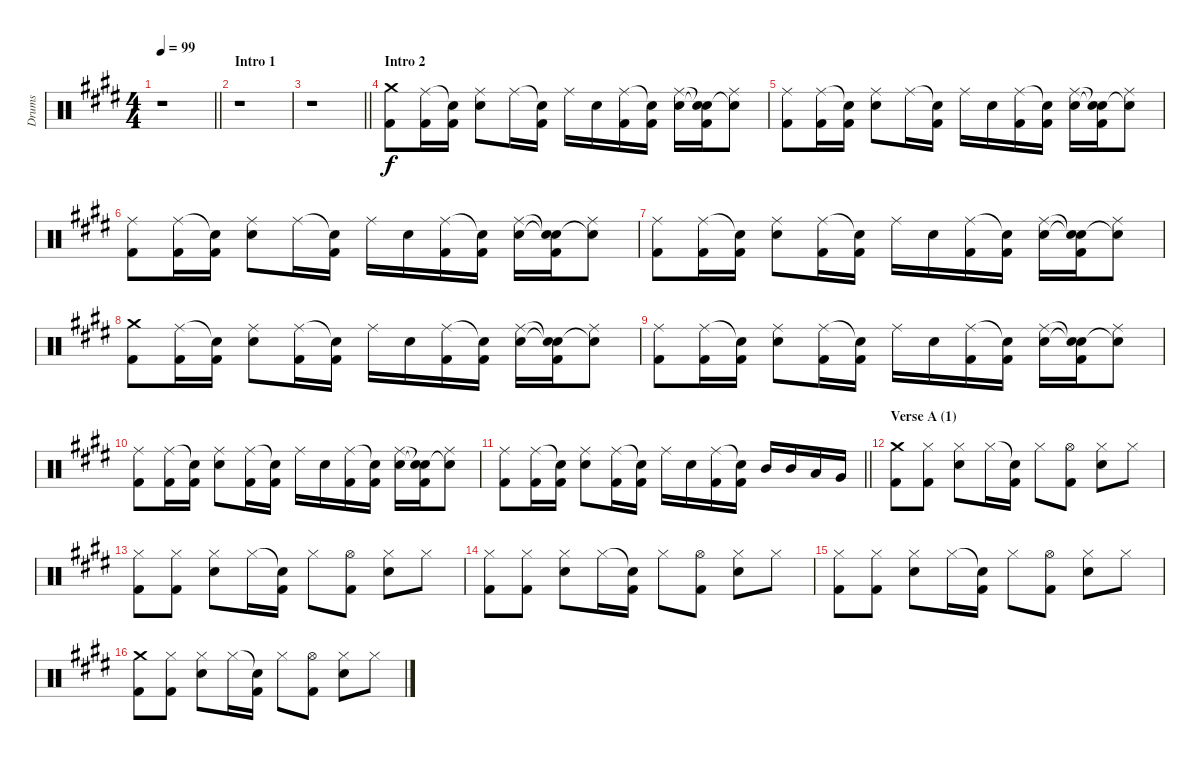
\track ("Drums" "Drums") {instrument percussion}
\staff {score}
\articulation defaults
\ts (4 4)
\tempo 99
\clef neutral
\barLineRight lightlight
\ks c#minor
r.1{dy f} |
\section ("" "Intro 1")
r.1 |
\barLineRight lightlight
r.1 |
\section ("" "Intro 2")
("Crash medium (hit)" "Kick (hit) 2").8 ("Ride (middle)" "Kick (hit) 2").16 ("Snare (hit)"{t} "Kick (hit) 2").16 ("Ride (middle)" "Electric Snare (hit)").8 "Ride (middle)".16 ("Snare (hit)"{t} "Kick (hit) 2").16 "Ride (middle)".16 "Electric Snare (hit)".16 ("Ride (middle)" "Kick (hit) 2").16 ("Snare (hit)"{t} "Kick (hit) 2").16 ("Ride (middle)" "Electric Snare (hit)").16 ("Snare (hit)"{t} "Snare (hit)"{t} "Kick (hit) 2").16 ("Ride (middle)" "Snare (hit)"{t}).8 |
("Ride (middle)" "Kick (hit) 2").8 ("Ride (middle)" "Kick (hit) 2").16 ("Snare (hit)"{t} "Kick (hit) 2").16 ("Ride (middle)" "Electric Snare (hit)").8 "Ride (middle)".16 ("Snare (hit)"{t} "Kick (hit) 2").16 "Ride (middle)".16 "Electric Snare (hit)".16 ("Ride (middle)" "Kick (hit) 2").16 ("Snare (hit)"{t} "Kick (hit) 2").16 ("Ride (middle)" "Electric Snare (hit)").16 ("Snare (hit)"{t} "Snare (hit)"{t} "Kick (hit) 2").16 ("Ride (middle)" "Snare (hit)"{t}).8 |
("Ride (middle)" "Kick (hit) 2").8 ("Ride (middle)" "Kick (hit) 2").16 ("Snare (hit)"{t} "Kick (hit) 2").16 ("Ride (middle)" "Electric Snare (hit)").8 "Ride (middle)".16 ("Snare (hit)"{t} "Kick (hit) 2").16 "Ride (middle)".16 "Electric Snare (hit)".16 ("Ride (middle)" "Kick (hit) 2").16 ("Snare (hit)"{t} "Kick (hit) 2").16 ("Ride (middle)" "Electric Snare (hit)").16 ("Snare (hit)"{t} "Snare (hit)"{t} "Kick (hit) 2").16 ("Ride (middle)" "Snare (hit)"{t}).8 |
("Ride (middle)" "Kick (hit) 2").8 ("Ride (middle)" "Kick (hit) 2").16 ("Snare (hit)"{t} "Kick (hit) 2").16 ("Ride (middle)" "Electric Snare (hit)").8 ("Ride (middle)" "Kick (hit) 2").16 ("Snare (hit)"{t} "Kick (hit) 2").16 "Ride (middle)".16 "Electric Snare (hit)".16 ("Ride (middle)" "Kick (hit) 2").16 ("Snare (hit)"{t} "Kick (hit) 2").16 ("Ride (middle)" "Electric Snare (hit)").16 ("Snare (hit)"{t} "Snare (hit)"{t} "Kick (hit) 2").16 ("Ride (middle)" "Snare (hit)"{t}).8 |
("Crash medium (hit)" "Kick (hit) 2").8 ("Ride (middle)" "Kick (hit) 2").16 ("Snare (hit)"{t} "Kick (hit) 2").16 ("Ride (middle)" "Electric Snare (hit)").8 ("Ride (middle)" "Kick (hit) 2").16 ("Snare (hit)"{t} "Kick (hit) 2").16 "Ride (middle)".16 "Electric Snare (hit)".16 ("Ride (middle)" "Kick (hit) 2").16 ("Snare (hit)"{t} "Kick (hit) 2").16 ("Ride (middle)" "Electric Snare (hit)").16 ("Snare (hit)"{t} "Snare (hit)"{t} "Kick (hit) 2").16 ("Ride (middle)" "Snare (hit)"{t}).8 |
("Ride (middle)" "Kick (hit) 2").8 ("Ride (middle)" "Kick (hit) 2").16 ("Snare (hit)"{t} "Kick (hit) 2").16 ("Ride (middle)" "Electric Snare (hit)").8 ("Ride (middle)" "Kick (hit) 2").16 ("Snare (hit)"{t} "Kick (hit) 2").16 "Ride (middle)".16 "Electric Snare (hit)".16 ("Ride (middle)" "Kick (hit) 2").16 ("Snare (hit)"{t} "Kick (hit) 2").16 ("Ride (middle)" "Electric Snare (hit)").16 ("Snare (hit)"{t} "Snare (hit)"{t} "Kick (hit) 2").16 ("Ride (middle)" "Snare (hit)"{t}).8 |
("Ride (middle)" "Kick (hit) 2").8 ("Ride (middle)" "Kick (hit) 2").16 ("Snare (hit)"{t} "Kick (hit) 2").16 ("Ride (middle)" "Electric Snare (hit)").8 ("Ride (middle)" "Kick (hit) 2").16 ("Snare (hit)"{t} "Kick (hit) 2").16 "Ride (middle)".16 "Electric Snare (hit)".16 ("Ride (middle)" "Kick (hit) 2").16 ("Snare (hit)"{t} "Kick (hit) 2").16 ("Ride (middle)" "Electric Snare (hit)").16 ("Snare (hit)"{t} "Snare (hit)"{t} "Kick (hit) 2").16 ("Ride (middle)" "Snare (hit)"{t}).8 |
\barLineRight lightlight
("Ride (middle)" "Kick (hit) 2").8 ("Ride (middle)" "Kick (hit) 2").16 ("Snare (hit)"{t} "Kick (hit) 2").16 ("Ride (middle)" "Electric Snare (hit)").8 ("Ride (middle)" "Kick (hit) 2").16 ("Snare (hit)"{t} "Kick (hit) 2").16 "Ride (middle)".16 "Electric Snare (hit)".16 ("Ride (middle)" "Kick (hit) 2").16 ("Snare (hit)"{t} "Kick (hit) 2").16 "Mid Tom (hit)".16 "Mid Tom (hit)".16 "Low Tom (hit)".16 "Very Low Tom (hit)".16 |
\section ("" "Verse A (1)")
("Crash medium (hit)" "Kick (hit) 2").8 ("Hi-Hat (closed)" "Kick (hit) 2").8 ("Hi-Hat (closed)" "Electric Snare (hit)").8 "Hi-Hat (closed)".16 ("Snare (hit)"{t} "Kick (hit) 2").16 "Hi-Hat (closed)".8 ("Hi-Hat (open)" "Kick (hit) 2").8 ("Hi-Hat (closed)" "Electric Snare (hit)").8 "Hi-Hat (closed)".8 |
("Hi-Hat (closed)" "Kick (hit) 2").8 ("Hi-Hat (closed)" "Kick (hit) 2").8 ("Hi-Hat (closed)" "Electric Snare (hit)").8 "Hi-Hat (closed)".16 ("Snare (hit)"{t} "Kick (hit) 2").16 "Hi-Hat (closed)".8 ("Hi-Hat (open)" "Kick (hit) 2").8 ("Hi-Hat (closed)" "Electric Snare (hit)").8 "Hi-Hat (closed)".8 |
("Hi-Hat (closed)" "Kick (hit) 2").8 ("Hi-Hat (closed)" "Kick (hit) 2").8 ("Hi-Hat (closed)" "Electric Snare (hit)").8 "Hi-Hat (closed)".16 ("Snare (hit)"{t} "Kick (hit) 2").16 "Hi-Hat (closed)".8 ("Hi-Hat (open)" "Kick (hit) 2").8 ("Hi-Hat (closed)" "Electric Snare (hit)").8 "Hi-Hat (closed)".8 |
("Hi-Hat (closed)" "Kick (hit) 2").8 ("Hi-Hat (closed)" "Kick (hit) 2").8 ("Hi-Hat (closed)" "Electric Snare (hit)").8 "Hi-Hat (closed)".16 ("Snare (hit)"{t} "Kick (hit) 2").16 "Hi-Hat (closed)".8 ("Hi-Hat (open)" "Kick (hit) 2").8 ("Hi-Hat (closed)" "Electric Snare (hit)").8 "Hi-Hat (closed)".8 |
("Crash medium (hit)" "Kick (hit) 2").8 ("Hi-Hat (closed)" "Kick (hit) 2").8 ("Hi-Hat (closed)" "Electric Snare (hit)").8 "Hi-Hat (closed)".16 ("Snare (hit)"{t} "Kick (hit) 2").16 "Hi-Hat (closed)".8 ("Hi-Hat (open)" "Kick (hit) 2").8 ("Hi-Hat (closed)" "Electric Snare (hit)").8 "Hi-Hat (closed)".8
